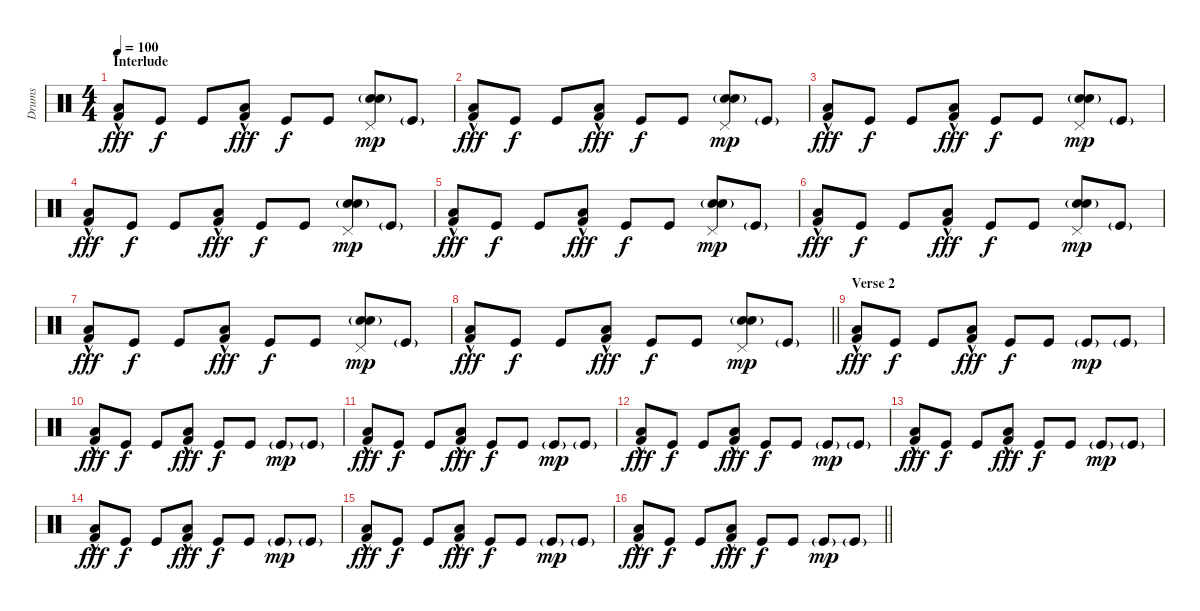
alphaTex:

\track ("Drums" "Drums") {instrument percussion}
\staff {score}
\articulation defaults
\ts (4 4)
\section ("" "Interlude")
\tempo 100
\clef neutral
\ks c
("Low Floor Tom (hit)" "Kick (hit) 2"{hac}).8{dy fff} "Kick (hit)".8{dy f} "Kick (hit)".8 ("Low Floor Tom (hit)" "Kick (hit) 2"{hac}).8{dy fff} "Kick (hit)".8{dy f} "Kick (hit)".8 ("Snare (hit) 2" "Electric Snare (hit)"{g} "Pedal Hi-Hat (hit)").8{dy mp} "Kick (hit)"{g}.8 |
("Low Floor Tom (hit)" "Kick (hit) 2"{hac}).8{dy fff} "Kick (hit)".8{dy f} "Kick (hit)".8 ("Low Floor Tom (hit)" "Kick (hit) 2"{hac}).8{dy fff} "Kick (hit)".8{dy f} "Kick (hit)".8 ("Snare (hit) 2" "Electric Snare (hit)"{g} "Pedal Hi-Hat (hit)").8{dy mp} "Kick (hit)"{g}.8 |
("Low Floor Tom (hit)" "Kick (hit) 2"{hac}).8{dy fff} "Kick (hit)".8{dy f} "Kick (hit)".8 ("Low Floor Tom (hit)" "Kick (hit) 2"{hac}).8{dy fff} "Kick (hit)".8{dy f} "Kick (hit)".8 ("Snare (hit) 2" "Electric Snare (hit)"{g} "Pedal Hi-Hat (hit)").8{dy mp} "Kick (hit)"{g}.8 |
("Low Floor Tom (hit)" "Kick (hit) 2"{hac}).8{dy fff} "Kick (hit)".8{dy f} "Kick (hit)".8 ("Low Floor Tom (hit)" "Kick (hit) 2"{hac}).8{dy fff} "Kick (hit)".8{dy f} "Kick (hit)".8 ("Snare (hit) 2" "Electric Snare (hit)"{g} "Pedal Hi-Hat (hit)").8{dy mp} "Kick (hit)"{g}.8 |
("Low Floor Tom (hit)" "Kick (hit) 2"{hac}).8{dy fff} "Kick (hit)".8{dy f} "Kick (hit)".8 ("Low Floor Tom (hit)" "Kick (hit) 2"{hac}).8{dy fff} "Kick (hit)".8{dy f} "Kick (hit)".8 ("Snare (hit) 2" "Electric Snare (hit)"{g} "Pedal Hi-Hat (hit)").8{dy mp} "Kick (hit)"{g}.8 |
("Low Floor Tom (hit)" "Kick (hit) 2"{hac}).8{dy fff} "Kick (hit)".8{dy f} "Kick (hit)".8 ("Low Floor Tom (hit)" "Kick (hit) 2"{hac}).8{dy fff} "Kick (hit)".8{dy f} "Kick (hit)".8 ("Snare (hit) 2" "Electric Snare (hit)"{g} "Pedal Hi-Hat (hit)").8{dy mp} "Kick (hit)"{g}.8 |
("Low Floor Tom (hit)" "Kick (hit) 2"{hac}).8{dy fff} "Kick (hit)".8{dy f} "Kick (hit)".8 ("Low Floor Tom (hit)" "Kick (hit) 2"{hac}).8{dy fff} "Kick (hit)".8{dy f} "Kick (hit)".8 ("Snare (hit) 2" "Electric Snare (hit)"{g} "Pedal Hi-Hat (hit)").8{dy mp} "Kick (hit)"{g}.8 |
\barLineRight lightlight
("Low Floor Tom (hit)" "Kick (hit) 2"{hac}).8{dy fff} "Kick (hit)".8{dy f} "Kick (hit)".8 ("Low Floor Tom (hit)" "Kick (hit) 2"{hac}).8{dy fff} "Kick (hit)".8{dy f} "Kick (hit)".8 ("Snare (hit) 2" "Electric Snare (hit)"{g} "Pedal Hi-Hat (hit)").8{dy mp} "Kick (hit)"{g}.8 |
\section ("" "Verse 2")
("Low Floor Tom (hit)" "Kick (hit) 2"{hac}).8{dy fff} "Kick (hit)".8{dy f} "Kick (hit)".8 ("Low Floor Tom (hit)" "Kick (hit) 2"{hac}).8{dy fff} "Kick (hit)".8{dy f} "Kick (hit)".8 "Kick (hit)"{g}.8{dy mp} "Kick (hit)"{g}.8 |
("Low Floor Tom (hit)" "Kick (hit) 2"{hac}).8{dy fff} "Kick (hit)".8{dy f} "Kick (hit)".8 ("Low Floor Tom (hit)" "Kick (hit) 2"{hac}).8{dy fff} "Kick (hit)".8{dy f} "Kick (hit)".8 "Kick (hit)"{g}.8{dy mp} "Kick (hit)"{g}.8 |
("Low Floor Tom (hit)" "Kick (hit) 2"{hac}).8{dy fff} "Kick (hit)".8{dy f} "Kick (hit)".8 ("Low Floor Tom (hit)" "Kick (hit) 2"{hac}).8{dy fff} "Kick (hit)".8{dy f} "Kick (hit)".8 "Kick (hit)"{g}.8{dy mp} "Kick (hit)"{g}.8 |
("Low Floor Tom (hit)" "Kick (hit) 2"{hac}).8{dy fff} "Kick (hit)".8{dy f} "Kick (hit)".8 ("Low Floor Tom (hit)" "Kick (hit) 2"{hac}).8{dy fff} "Kick (hit)".8{dy f} "Kick (hit)".8 "Kick (hit)"{g}.8{dy mp} "Kick (hit)"{g}.8 |
("Low Floor Tom (hit)" "Kick (hit) 2"{hac}).8{dy fff} "Kick (hit)".8{dy f} "Kick (hit)".8 ("Low Floor Tom (hit)" "Kick (hit) 2"{hac}).8{dy fff} "Kick (hit)".8{dy f} "Kick (hit)".8 "Kick (hit)"{g}.8{dy mp} "Kick (hit)"{g}.8 |
("Low Floor Tom (hit)" "Kick (hit) 2"{hac}).8{dy fff} "Kick (hit)".8{dy f} "Kick (hit)".8 ("Low Floor Tom (hit)" "Kick (hit) 2"{hac}).8{dy fff} "Kick (hit)".8{dy f} "Kick (hit)".8 "Kick (hit)"{g}.8{dy mp} "Kick (hit)"{g}.8 |
("Low Floor Tom (hit)" "Kick (hit) 2"{hac}).8{dy fff} "Kick (hit)".8{dy f} "Kick (hit)".8 ("Low Floor Tom (hit)" "Kick (hit) 2"{hac}).8{dy fff} "Kick (hit)".8{dy f} "Kick (hit)".8 "Kick (hit)"{g}.8{dy mp} "Kick (hit)"{g}.8 |
\barLineRight lightlight
("Low Floor Tom (hit)" "Kick (hit) 2"{hac}).8{dy fff} "Kick (hit)".8{dy f} "Kick (hit)".8 ("Low Floor Tom (hit)" "Kick (hit) 2"{hac}).8{dy fff} "Kick (hit)".8{dy f} "Kick (hit)".8 "Kick (hit)"{g}.8{dy mp} "Kick (hit)"{g}.8
